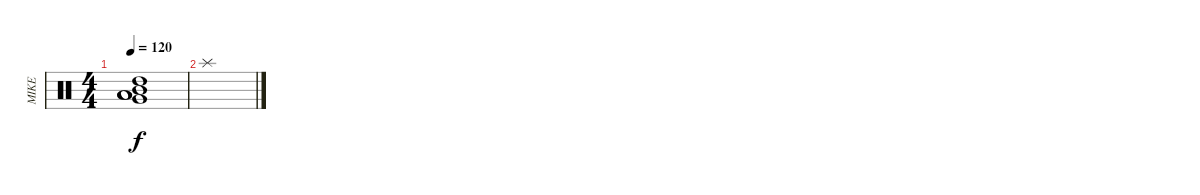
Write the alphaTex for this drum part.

\track ("MIKE" "MIKE") {instrument percussion}
\staff {score}
\articulation defaults
\ts (4 4)
\tempo 120
\clef neutral
\ks c
("High Tom (hit)" "Mid Tom (hit)" "Low Tom (hit)" "Very Low Tom (hit)" "Low Floor Tom (hit)").1{bu 480 dy f} |
"Splash (hit)".1
